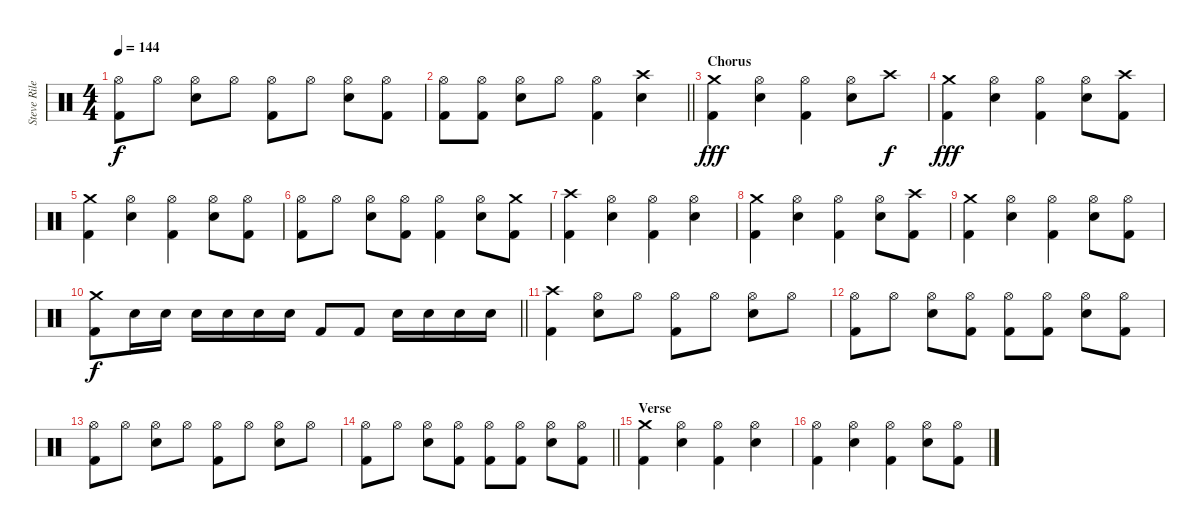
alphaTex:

\track ("Steve Riley" "Steve Rile") {instrument percussion}
\staff {score}
\articulation defaults
\ts (4 4)
\tempo 144
\clef neutral
\ks c
("Hi-Hat (open)" "Kick (hit) 2").8{dy f} "Hi-Hat (open)".8 ("Hi-Hat (open)" "Snare (hit) 2").8 "Hi-Hat (open)".8 ("Hi-Hat (open)" "Kick (hit) 2").8 "Hi-Hat (open)".8 ("Hi-Hat (open)" "Snare (hit) 2").8 ("Hi-Hat (open)" "Kick (hit) 2").8 |
\barLineRight lightlight
("Hi-Hat (open)" "Kick (hit) 2").8 ("Hi-Hat (open)" "Kick (hit) 2").8 ("Hi-Hat (open)" "Snare (hit) 2").8 "Hi-Hat (open)".8 ("Hi-Hat (open)" "Kick (hit) 2").4 ("Crash high (hit)" "Snare (hit) 2").4 |
\section ("" "Chorus")
("Crash medium (hit)" "Kick (hit) 2").4{dy fff} ("Hi-Hat (open)" "Snare (hit) 2").4 ("Hi-Hat (open)" "Kick (hit) 2").4 ("Hi-Hat (open)" "Snare (hit) 2").8 "Crash high (hit)".8{dy f} |
("Crash medium (hit)" "Kick (hit) 2").4{dy fff} ("Hi-Hat (open)" "Snare (hit) 2").4 ("Hi-Hat (open)" "Kick (hit) 2").4 ("Hi-Hat (open)" "Snare (hit) 2").8 ("Crash high (hit)" "Kick (hit) 2").8 |
("Crash medium (hit)" "Kick (hit) 2").4 ("Hi-Hat (open)" "Snare (hit) 2").4 ("Hi-Hat (open)" "Kick (hit) 2").4 ("Hi-Hat (open)" "Snare (hit) 2").8 ("Hi-Hat (open)" "Kick (hit) 2").8 |
("Hi-Hat (open)" "Kick (hit) 2").8 "Hi-Hat (open)".8 ("Hi-Hat (open)" "Snare (hit) 2").8 ("Hi-Hat (open)" "Kick (hit) 2").8 ("Hi-Hat (open)" "Kick (hit) 2").4 ("Hi-Hat (open)" "Snare (hit) 2").8 ("Crash medium (hit)" "Kick (hit) 2").8 |
("Crash high (hit)" "Kick (hit) 2").4 ("Hi-Hat (open)" "Snare (hit) 2").4 ("Hi-Hat (open)" "Kick (hit) 2").4 ("Hi-Hat (open)" "Snare (hit) 2").4 |
("Crash medium (hit)" "Kick (hit) 2").4 ("Hi-Hat (open)" "Snare (hit) 2").4 ("Hi-Hat (open)" "Kick (hit) 2").4 ("Hi-Hat (open)" "Snare (hit) 2").8 ("Crash high (hit)" "Kick (hit) 2").8 |
("Crash medium (hit)" "Kick (hit) 2").4 ("Hi-Hat (open)" "Snare (hit) 2").4 ("Hi-Hat (open)" "Kick (hit) 2").4 ("Hi-Hat (open)" "Snare (hit) 2").8 ("Hi-Hat (open)" "Kick (hit) 2").8 |
\barLineRight lightlight
("Crash medium (hit)" "Kick (hit) 2").8{dy f} "Snare (hit) 2".16 "Snare (hit) 2".16 "Snare (hit) 2".16 "Snare (hit) 2".16 "Snare (hit) 2".16 "Snare (hit) 2".16 "Kick (hit) 2".8 "Kick (hit) 2".8 "Snare (hit) 2".16 "Snare (hit) 2".16 "Snare (hit) 2".16 "Snare (hit) 2".16 |
\section ("" "")
("Crash high (hit)" "Kick (hit) 2").4 ("Hi-Hat (open)" "Snare (hit) 2").8 "Hi-Hat (open)".8 ("Hi-Hat (open)" "Kick (hit) 2").8 "Hi-Hat (open)".8 ("Hi-Hat (open)" "Snare (hit) 2").8 "Hi-Hat (open)".8 |
("Hi-Hat (open)" "Kick (hit) 2").8 "Hi-Hat (open)".8 ("Hi-Hat (open)" "Snare (hit) 2").8 ("Hi-Hat (open)" "Kick (hit) 2").8 ("Hi-Hat (open)" "Kick (hit) 2").8 ("Hi-Hat (open)" "Kick (hit) 2").8 ("Hi-Hat (open)" "Snare (hit) 2").8 ("Hi-Hat (open)" "Kick (hit) 2").8 |
("Hi-Hat (open)" "Kick (hit) 2").8 "Hi-Hat (open)".8 ("Hi-Hat (open)" "Snare (hit) 2").8 "Hi-Hat (open)".8 ("Hi-Hat (open)" "Kick (hit) 2").8 "Hi-Hat (open)".8 ("Hi-Hat (open)" "Snare (hit) 2").8 "Hi-Hat (open)".8 |
\barLineRight lightlight
("Hi-Hat (open)" "Kick (hit) 2").8 "Hi-Hat (open)".8 ("Hi-Hat (open)" "Snare (hit) 2").8 ("Hi-Hat (open)" "Kick (hit) 2").8 ("Hi-Hat (open)" "Kick (hit) 2").8 ("Hi-Hat (open)" "Kick (hit) 2").8 ("Hi-Hat (open)" "Snare (hit) 2").8 ("Hi-Hat (open)" "Kick (hit) 2").8 |
\section ("" "Verse")
("Crash medium (hit)" "Kick (hit) 2").4 ("Hi-Hat (open)" "Snare (hit) 2").4 ("Hi-Hat (open)" "Kick (hit) 2").4 ("Hi-Hat (open)" "Snare (hit) 2").4 |
("Hi-Hat (open)" "Kick (hit) 2").4 ("Hi-Hat (open)" "Snare (hit) 2").4 ("Hi-Hat (open)" "Kick (hit) 2").4 ("Hi-Hat (open)" "Snare (hit) 2").8 ("Hi-Hat (open)" "Kick (hit) 2").8
